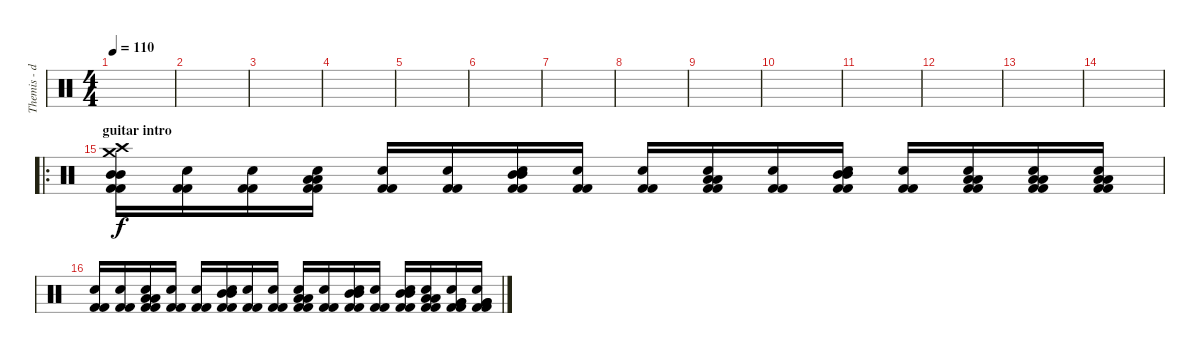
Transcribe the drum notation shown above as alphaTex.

\track ("Themis - drms" "Themis - d") {instrument percussion}
\staff {score}
\articulation defaults
\ts (4 4)
\tempo 110
\clef neutral
\ks c
|
|
|
|
|
|
|
|
|
|
|
|
|
|
\ro
\section ("" "guitar intro")
("Mid Tom (hit)" "Mid Tom (hit)" "Crash high (hit)" "Kick (hit) 2" "Kick (hit) 2" "Crash medium (hit)").16 ("Kick (hit) 2" "Kick (hit) 2" "Snare (hit)"{x}).16 ("Kick (hit) 2" "Kick (hit) 2" "Snare (hit)"{x}).16 ("Low Tom (hit)" "Low Tom (hit)" "Kick (hit) 2" "Kick (hit) 2" "Snare (hit)"{x}).16 ("Kick (hit) 2" "Kick (hit) 2" "Snare (hit)"{x}).16 ("Kick (hit) 2" "Kick (hit) 2" "Snare (hit)"{x}).16 ("Mid Tom (hit)" "Mid Tom (hit)" "Kick (hit) 2" "Kick (hit) 2" "Snare (hit)"{x}).16 ("Kick (hit) 2" "Kick (hit) 2" "Snare (hit)"{x}).16 ("Kick (hit) 2" "Kick (hit) 2" "Snare (hit)"{x}).16 ("Low Tom (hit)" "Low Tom (hit)" "Kick (hit) 2" "Kick (hit) 2" "Snare (hit)"{x}).16 ("Kick (hit) 2" "Kick (hit) 2" "Snare (hit)"{x}).16 ("Mid Tom (hit)" "Mid Tom (hit)" "Kick (hit) 2" "Kick (hit) 2" "Snare (hit)"{x}).16 ("Kick (hit) 2" "Kick (hit) 2" "Snare (hit)"{x}).16 ("Low Tom (hit)" "Low Tom (hit)" "Kick (hit) 2" "Kick (hit) 2" "Snare (hit)"{x}).16 ("Low Tom (hit)" "Low Tom (hit)" "Kick (hit) 2" "Kick (hit) 2" "Snare (hit)"{x}).16 ("Low Tom (hit)" "Low Tom (hit)" "Kick (hit) 2" "Kick (hit) 2" "Snare (hit)"{x}).16 |
("Kick (hit) 2" "Kick (hit) 2" "Snare (hit)"{x}).16 ("Kick (hit) 2" "Kick (hit) 2" "Snare (hit)"{x}).16 ("Low Tom (hit)" "Low Tom (hit)" "Kick (hit) 2" "Kick (hit) 2" "Snare (hit)"{x}).16 ("Kick (hit) 2" "Kick (hit) 2" "Snare (hit)"{x}).16 ("Kick (hit) 2" "Kick (hit) 2" "Snare (hit)"{x}).16 ("Mid Tom (hit)" "Mid Tom (hit)" "Kick (hit) 2" "Kick (hit) 2" "Snare (hit)"{x}).16 ("Kick (hit) 2" "Kick (hit) 2" "Snare (hit)"{x}).16 ("Kick (hit) 2" "Kick (hit) 2" "Snare (hit)"{x}).16 ("Low Tom (hit)" "Low Tom (hit)" "Kick (hit) 2" "Kick (hit) 2" "Snare (hit)"{x}).16 ("Kick (hit) 2" "Kick (hit) 2" "Snare (hit)"{x}).16 ("Mid Tom (hit)" "Mid Tom (hit)" "Kick (hit) 2" "Kick (hit) 2" "Snare (hit)"{x}).16 ("Kick (hit) 2" "Kick (hit) 2" "Snare (hit)"{x}).16 ("Mid Tom (hit)" "Mid Tom (hit)" "Kick (hit) 2" "Kick (hit) 2" "Snare (hit)"{x}).16 ("Low Tom (hit)" "Low Tom (hit)" "Kick (hit) 2" "Kick (hit) 2" "Snare (hit)"{x}).16 ("Very Low Tom (hit)" "Very Low Tom (hit)" "Kick (hit) 2" "Kick (hit) 2" "Snare (hit)"{x}).16 ("Very Low Tom (hit)" "Very Low Tom (hit)" "Kick (hit) 2" "Kick (hit) 2" "Snare (hit)"{x}).16
